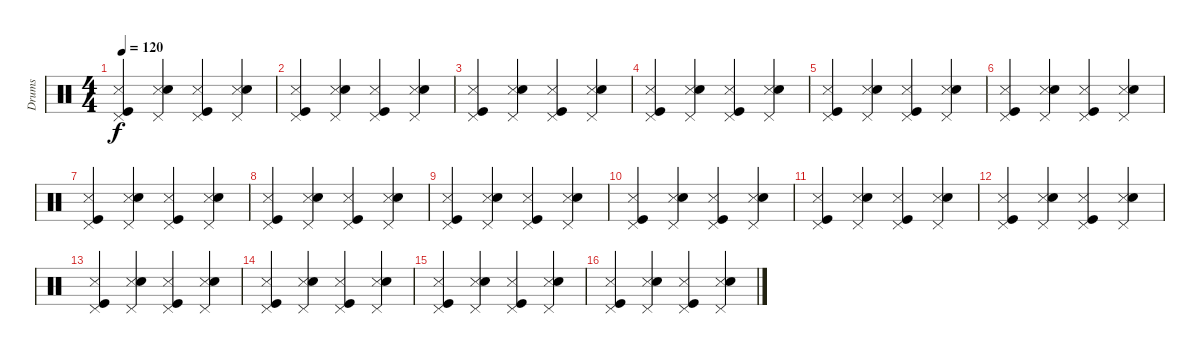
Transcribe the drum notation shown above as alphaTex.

\track ("Drums" "Drums") {instrument percussion}
\staff {score}
\articulation defaults
\ts (4 4)
\tempo 120
\clef neutral
\ks c
("Pedal Hi-Hat (hit)" "Kick (hit)" "Snare (side stick) 3").4{dy f} ("Snare (side stick) 3" "Pedal Hi-Hat (hit)" "Snare (hit) 2").4 ("Pedal Hi-Hat (hit)" "Snare (side stick) 3" "Kick (hit)").4 ("Pedal Hi-Hat (hit)" "Snare (side stick) 3" "Snare (hit) 2").4 |
("Pedal Hi-Hat (hit)" "Kick (hit)" "Snare (side stick) 3").4 ("Snare (side stick) 3" "Pedal Hi-Hat (hit)" "Snare (hit) 2").4 ("Pedal Hi-Hat (hit)" "Snare (side stick) 3" "Kick (hit)").4 ("Pedal Hi-Hat (hit)" "Snare (side stick) 3" "Snare (hit) 2").4 |
("Pedal Hi-Hat (hit)" "Kick (hit)" "Snare (side stick) 3").4 ("Snare (side stick) 3" "Pedal Hi-Hat (hit)" "Snare (hit) 2").4 ("Pedal Hi-Hat (hit)" "Snare (side stick) 3" "Kick (hit)").4 ("Pedal Hi-Hat (hit)" "Snare (side stick) 3" "Snare (hit) 2").4 |
("Pedal Hi-Hat (hit)" "Kick (hit)" "Snare (side stick) 3").4 ("Snare (side stick) 3" "Pedal Hi-Hat (hit)" "Snare (hit) 2").4 ("Pedal Hi-Hat (hit)" "Snare (side stick) 3" "Kick (hit)").4 ("Pedal Hi-Hat (hit)" "Snare (side stick) 3" "Snare (hit) 2").4 |
("Pedal Hi-Hat (hit)" "Kick (hit)" "Snare (side stick) 3").4 ("Snare (side stick) 3" "Pedal Hi-Hat (hit)" "Snare (hit) 2").4 ("Pedal Hi-Hat (hit)" "Snare (side stick) 3" "Kick (hit)").4 ("Pedal Hi-Hat (hit)" "Snare (side stick) 3" "Snare (hit) 2").4 |
("Pedal Hi-Hat (hit)" "Kick (hit)" "Snare (side stick) 3").4 ("Snare (side stick) 3" "Pedal Hi-Hat (hit)" "Snare (hit) 2").4 ("Pedal Hi-Hat (hit)" "Snare (side stick) 3" "Kick (hit)").4 ("Pedal Hi-Hat (hit)" "Snare (side stick) 3" "Snare (hit) 2").4 |
("Pedal Hi-Hat (hit)" "Kick (hit)" "Snare (side stick) 3").4 ("Snare (side stick) 3" "Pedal Hi-Hat (hit)" "Snare (hit) 2").4 ("Pedal Hi-Hat (hit)" "Snare (side stick) 3" "Kick (hit)").4 ("Pedal Hi-Hat (hit)" "Snare (side stick) 3" "Snare (hit) 2").4 |
("Pedal Hi-Hat (hit)" "Kick (hit)" "Snare (side stick) 3").4 ("Snare (side stick) 3" "Pedal Hi-Hat (hit)" "Snare (hit) 2").4 ("Pedal Hi-Hat (hit)" "Snare (side stick) 3" "Kick (hit)").4 ("Pedal Hi-Hat (hit)" "Snare (side stick) 3" "Snare (hit) 2").4 |
("Pedal Hi-Hat (hit)" "Kick (hit)" "Snare (side stick) 3").4 ("Snare (side stick) 3" "Pedal Hi-Hat (hit)" "Snare (hit) 2").4 ("Pedal Hi-Hat (hit)" "Snare (side stick) 3" "Kick (hit)").4 ("Pedal Hi-Hat (hit)" "Snare (side stick) 3" "Snare (hit) 2").4 |
("Pedal Hi-Hat (hit)" "Kick (hit)" "Snare (side stick) 3").4 ("Snare (side stick) 3" "Pedal Hi-Hat (hit)" "Snare (hit) 2").4 ("Pedal Hi-Hat (hit)" "Snare (side stick) 3" "Kick (hit)").4 ("Pedal Hi-Hat (hit)" "Snare (side stick) 3" "Snare (hit) 2").4 |
("Pedal Hi-Hat (hit)" "Kick (hit)" "Snare (side stick) 3").4 ("Snare (side stick) 3" "Pedal Hi-Hat (hit)" "Snare (hit) 2").4 ("Pedal Hi-Hat (hit)" "Snare (side stick) 3" "Kick (hit)").4 ("Pedal Hi-Hat (hit)" "Snare (side stick) 3" "Snare (hit) 2").4 |
("Pedal Hi-Hat (hit)" "Kick (hit)" "Snare (side stick) 3").4 ("Snare (side stick) 3" "Pedal Hi-Hat (hit)" "Snare (hit) 2").4 ("Pedal Hi-Hat (hit)" "Snare (side stick) 3" "Kick (hit)").4 ("Pedal Hi-Hat (hit)" "Snare (side stick) 3" "Snare (hit) 2").4 |
("Pedal Hi-Hat (hit)" "Kick (hit)" "Snare (side stick) 3").4 ("Snare (side stick) 3" "Pedal Hi-Hat (hit)" "Snare (hit) 2").4 ("Pedal Hi-Hat (hit)" "Snare (side stick) 3" "Kick (hit)").4 ("Pedal Hi-Hat (hit)" "Snare (side stick) 3" "Snare (hit) 2").4 |
("Pedal Hi-Hat (hit)" "Kick (hit)" "Snare (side stick) 3").4 ("Snare (side stick) 3" "Pedal Hi-Hat (hit)" "Snare (hit) 2").4 ("Pedal Hi-Hat (hit)" "Snare (side stick) 3" "Kick (hit)").4 ("Pedal Hi-Hat (hit)" "Snare (side stick) 3" "Snare (hit) 2").4 |
("Pedal Hi-Hat (hit)" "Kick (hit)" "Snare (side stick) 3").4 ("Snare (side stick) 3" "Pedal Hi-Hat (hit)" "Snare (hit) 2").4 ("Pedal Hi-Hat (hit)" "Snare (side stick) 3" "Kick (hit)").4 ("Pedal Hi-Hat (hit)" "Snare (side stick) 3" "Snare (hit) 2").4 |
("Pedal Hi-Hat (hit)" "Kick (hit)" "Snare (side stick) 3").4 ("Snare (side stick) 3" "Pedal Hi-Hat (hit)" "Snare (hit) 2").4 ("Pedal Hi-Hat (hit)" "Snare (side stick) 3" "Kick (hit)").4 ("Pedal Hi-Hat (hit)" "Snare (side stick) 3" "Snare (hit) 2").4
